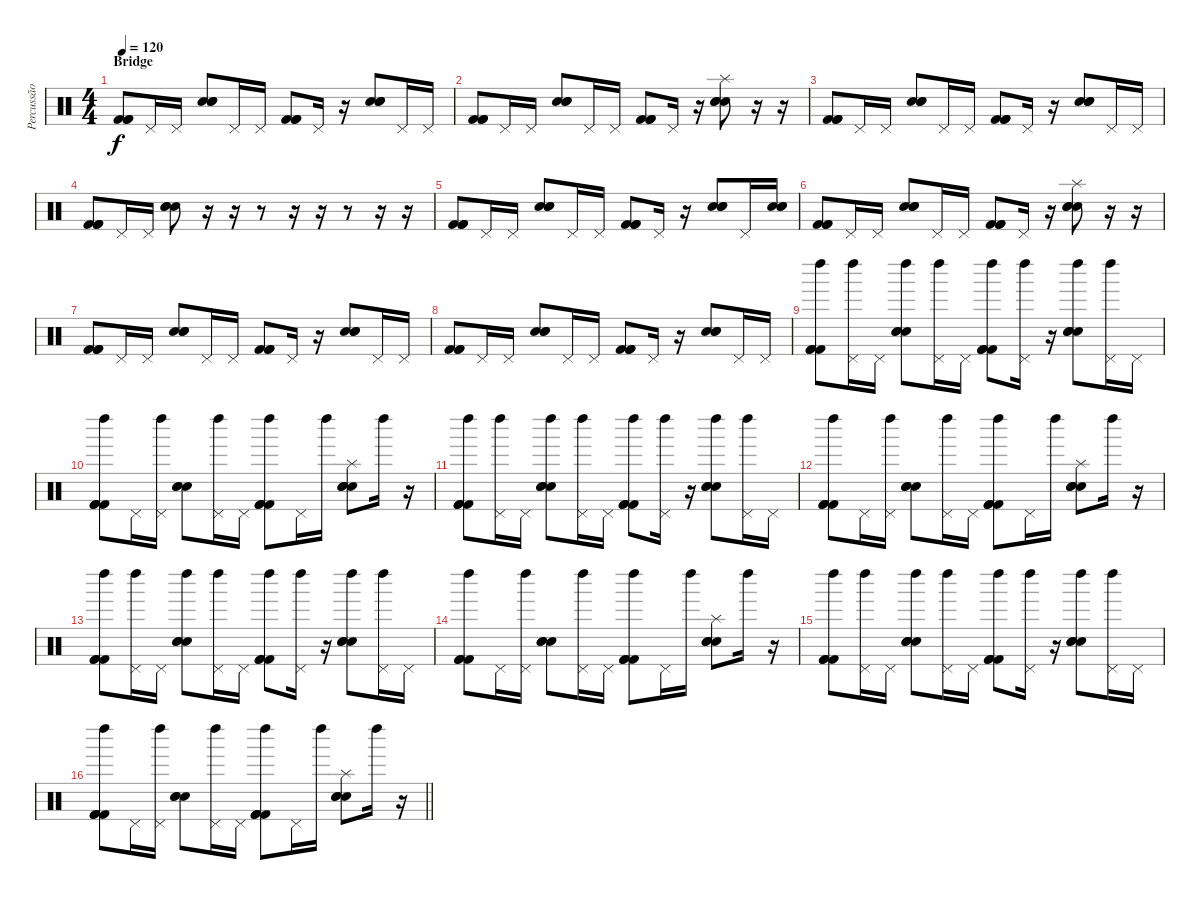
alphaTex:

\track ("Percussão" "Percussão") {instrument percussion}
\staff {score}
\articulation defaults
\ts (4 4)
\section ("" "Bridge")
\tempo 120
\clef neutral
\ks c
("Kick (hit) 2" "Kick (hit) 2" "Kick (hit) 2").8{dy f} "Pedal Hi-Hat (hit)".16 "Pedal Hi-Hat (hit)".16 ("Hand Clap (hit)" "Hand Clap (hit)" "Hand Clap (hit)").8 "Pedal Hi-Hat (hit)".16 "Pedal Hi-Hat (hit)".16 ("Kick (hit) 2" "Kick (hit) 2" "Kick (hit) 2").8 "Pedal Hi-Hat (hit)".16 r.16 ("Hand Clap (hit)" "Hand Clap (hit)" "Hand Clap (hit)").8 "Pedal Hi-Hat (hit)".16 "Pedal Hi-Hat (hit)".16 |
("Kick (hit) 2" "Kick (hit) 2" "Kick (hit) 2").8 "Pedal Hi-Hat (hit)".16 "Pedal Hi-Hat (hit)".16 ("Hand Clap (hit)" "Hand Clap (hit)" "Hand Clap (hit)").8 "Pedal Hi-Hat (hit)".16 "Pedal Hi-Hat (hit)".16 ("Kick (hit) 2" "Kick (hit) 2" "Kick (hit) 2").8 "Pedal Hi-Hat (hit)".16 r.16 ("Splash (hit)" "Hand Clap (hit)" "Hand Clap (hit)" "Hand Clap (hit)").8 r.16 r.16 |
("Kick (hit) 2" "Kick (hit) 2" "Kick (hit) 2").8 "Pedal Hi-Hat (hit)".16 "Pedal Hi-Hat (hit)".16 ("Hand Clap (hit)" "Hand Clap (hit)" "Hand Clap (hit)").8 "Pedal Hi-Hat (hit)".16 "Pedal Hi-Hat (hit)".16 ("Kick (hit) 2" "Kick (hit) 2" "Kick (hit) 2").8 "Pedal Hi-Hat (hit)".16 r.16 ("Hand Clap (hit)" "Hand Clap (hit)" "Hand Clap (hit)").8 "Pedal Hi-Hat (hit)".16 "Pedal Hi-Hat (hit)".16 |
("Kick (hit) 2" "Kick (hit) 2" "Kick (hit) 2").8 "Pedal Hi-Hat (hit)".16 "Pedal Hi-Hat (hit)".16 ("Hand Clap (hit)" "Hand Clap (hit)" "Hand Clap (hit)").8 r.16 r.16 r.8 r.16 r.16 r.8 r.16 r.16 |
("Kick (hit) 2" "Kick (hit) 2" "Kick (hit) 2").8 "Pedal Hi-Hat (hit)".16 "Pedal Hi-Hat (hit)".16 ("Hand Clap (hit)" "Hand Clap (hit)" "Hand Clap (hit)").8 "Pedal Hi-Hat (hit)".16 "Pedal Hi-Hat (hit)".16 ("Kick (hit) 2" "Kick (hit) 2" "Kick (hit) 2").8 "Pedal Hi-Hat (hit)".16 r.16 ("Hand Clap (hit)" "Hand Clap (hit)" "Hand Clap (hit)").8 "Pedal Hi-Hat (hit)".16 ("Hand Clap (hit)" "Hand Clap (hit)" "Hand Clap (hit)").16 |
("Kick (hit) 2" "Kick (hit) 2" "Kick (hit) 2").8 "Pedal Hi-Hat (hit)".16 "Pedal Hi-Hat (hit)".16 ("Hand Clap (hit)" "Hand Clap (hit)" "Hand Clap (hit)").8 "Pedal Hi-Hat (hit)".16 "Pedal Hi-Hat (hit)".16 ("Kick (hit) 2" "Kick (hit) 2" "Kick (hit) 2").8 "Pedal Hi-Hat (hit)".16 r.16 ("Splash (hit)" "Hand Clap (hit)" "Hand Clap (hit)" "Hand Clap (hit)").8 r.16 r.16 |
("Kick (hit) 2" "Kick (hit) 2" "Kick (hit) 2").8 "Pedal Hi-Hat (hit)".16 "Pedal Hi-Hat (hit)".16 ("Hand Clap (hit)" "Hand Clap (hit)" "Hand Clap (hit)").8 "Pedal Hi-Hat (hit)".16 "Pedal Hi-Hat (hit)".16 ("Kick (hit) 2" "Kick (hit) 2" "Kick (hit) 2").8 "Pedal Hi-Hat (hit)".16 r.16 ("Hand Clap (hit)" "Hand Clap (hit)" "Hand Clap (hit)").8 "Pedal Hi-Hat (hit)".16 "Pedal Hi-Hat (hit)".16 |
("Kick (hit) 2" "Kick (hit) 2" "Kick (hit) 2").8 "Pedal Hi-Hat (hit)".16 "Pedal Hi-Hat (hit)".16 ("Hand Clap (hit)" "Hand Clap (hit)" "Hand Clap (hit)").8 "Pedal Hi-Hat (hit)".16 "Pedal Hi-Hat (hit)".16 ("Kick (hit) 2" "Kick (hit) 2" "Kick (hit) 2").8 "Pedal Hi-Hat (hit)".16 r.16 ("Hand Clap (hit)" "Hand Clap (hit)" "Hand Clap (hit)").8 "Pedal Hi-Hat (hit)".16 "Pedal Hi-Hat (hit)".16 |
("Left Maraca (hit)" "Kick (hit) 2" "Kick (hit) 2" "Kick (hit) 2").8{volume 11} ("Left Maraca (hit)" "Pedal Hi-Hat (hit)").16 "Pedal Hi-Hat (hit)".16 ("Left Maraca (hit)" "Hand Clap (hit)" "Hand Clap (hit)" "Hand Clap (hit)").8 ("Left Maraca (hit)" "Pedal Hi-Hat (hit)").16 "Pedal Hi-Hat (hit)".16 ("Left Maraca (hit)" "Kick (hit) 2" "Kick (hit) 2" "Kick (hit) 2").8 ("Left Maraca (hit)" "Pedal Hi-Hat (hit)").16 r.16 ("Left Maraca (hit)" "Hand Clap (hit)" "Hand Clap (hit)" "Hand Clap (hit)").8 ("Left Maraca (hit)" "Pedal Hi-Hat (hit)").16 "Pedal Hi-Hat (hit)".16 |
("Left Maraca (hit)" "Kick (hit) 2" "Kick (hit) 2" "Kick (hit) 2").8 "Pedal Hi-Hat (hit)".16 ("Left Maraca (hit)" "Pedal Hi-Hat (hit)").16 ("Hand Clap (hit)" "Hand Clap (hit)" "Hand Clap (hit)").8 ("Left Maraca (hit)" "Pedal Hi-Hat (hit)").16 "Pedal Hi-Hat (hit)".16 ("Left Maraca (hit)" "Kick (hit) 2" "Kick (hit) 2" "Kick (hit) 2").8 "Pedal Hi-Hat (hit)".16 "Left Maraca (hit)".16 ("Splash (hit)" "Hand Clap (hit)" "Hand Clap (hit)" "Hand Clap (hit)").8 "Left Maraca (hit)".16 r.16 |
("Left Maraca (hit)" "Kick (hit) 2" "Kick (hit) 2" "Kick (hit) 2").8 ("Left Maraca (hit)" "Pedal Hi-Hat (hit)").16 "Pedal Hi-Hat (hit)".16 ("Left Maraca (hit)" "Hand Clap (hit)" "Hand Clap (hit)" "Hand Clap (hit)").8 ("Left Maraca (hit)" "Pedal Hi-Hat (hit)").16 "Pedal Hi-Hat (hit)".16 ("Left Maraca (hit)" "Kick (hit) 2" "Kick (hit) 2" "Kick (hit) 2").8 ("Left Maraca (hit)" "Pedal Hi-Hat (hit)").16 r.16 ("Left Maraca (hit)" "Hand Clap (hit)" "Hand Clap (hit)" "Hand Clap (hit)").8 ("Left Maraca (hit)" "Pedal Hi-Hat (hit)").16 "Pedal Hi-Hat (hit)".16 |
("Left Maraca (hit)" "Kick (hit) 2" "Kick (hit) 2" "Kick (hit) 2").8 "Pedal Hi-Hat (hit)".16 ("Left Maraca (hit)" "Pedal Hi-Hat (hit)").16 ("Hand Clap (hit)" "Hand Clap (hit)" "Hand Clap (hit)").8 ("Left Maraca (hit)" "Pedal Hi-Hat (hit)").16 "Pedal Hi-Hat (hit)".16 ("Left Maraca (hit)" "Kick (hit) 2" "Kick (hit) 2" "Kick (hit) 2").8 "Pedal Hi-Hat (hit)".16 "Left Maraca (hit)".16 ("Splash (hit)" "Hand Clap (hit)" "Hand Clap (hit)" "Hand Clap (hit)").8 "Left Maraca (hit)".16 r.16 |
("Left Maraca (hit)" "Kick (hit) 2" "Kick (hit) 2" "Kick (hit) 2").8 ("Left Maraca (hit)" "Pedal Hi-Hat (hit)").16 "Pedal Hi-Hat (hit)".16 ("Left Maraca (hit)" "Hand Clap (hit)" "Hand Clap (hit)" "Hand Clap (hit)").8 ("Left Maraca (hit)" "Pedal Hi-Hat (hit)").16 "Pedal Hi-Hat (hit)".16 ("Left Maraca (hit)" "Kick (hit) 2" "Kick (hit) 2" "Kick (hit) 2").8 ("Left Maraca (hit)" "Pedal Hi-Hat (hit)").16 r.16 ("Left Maraca (hit)" "Hand Clap (hit)" "Hand Clap (hit)" "Hand Clap (hit)").8 ("Left Maraca (hit)" "Pedal Hi-Hat (hit)").16 "Pedal Hi-Hat (hit)".16 |
("Left Maraca (hit)" "Kick (hit) 2" "Kick (hit) 2" "Kick (hit) 2").8 "Pedal Hi-Hat (hit)".16 ("Left Maraca (hit)" "Pedal Hi-Hat (hit)").16 ("Hand Clap (hit)" "Hand Clap (hit)" "Hand Clap (hit)").8 ("Left Maraca (hit)" "Pedal Hi-Hat (hit)").16 "Pedal Hi-Hat (hit)".16 ("Left Maraca (hit)" "Kick (hit) 2" "Kick (hit) 2" "Kick (hit) 2").8 "Pedal Hi-Hat (hit)".16 "Left Maraca (hit)".16 ("Splash (hit)" "Hand Clap (hit)" "Hand Clap (hit)" "Hand Clap (hit)").8 "Left Maraca (hit)".16 r.16 |
("Left Maraca (hit)" "Kick (hit) 2" "Kick (hit) 2" "Kick (hit) 2").8 ("Left Maraca (hit)" "Pedal Hi-Hat (hit)").16 "Pedal Hi-Hat (hit)".16 ("Left Maraca (hit)" "Hand Clap (hit)" "Hand Clap (hit)" "Hand Clap (hit)").8 ("Left Maraca (hit)" "Pedal Hi-Hat (hit)").16 "Pedal Hi-Hat (hit)".16 ("Left Maraca (hit)" "Kick (hit) 2" "Kick (hit) 2" "Kick (hit) 2").8 ("Left Maraca (hit)" "Pedal Hi-Hat (hit)").16 r.16 ("Left Maraca (hit)" "Hand Clap (hit)" "Hand Clap (hit)" "Hand Clap (hit)").8 ("Left Maraca (hit)" "Pedal Hi-Hat (hit)").16 "Pedal Hi-Hat (hit)".16 |
\barLineRight lightlight
("Left Maraca (hit)" "Kick (hit) 2" "Kick (hit) 2" "Kick (hit) 2").8 "Pedal Hi-Hat (hit)".16 ("Left Maraca (hit)" "Pedal Hi-Hat (hit)").16 ("Hand Clap (hit)" "Hand Clap (hit)" "Hand Clap (hit)").8 ("Left Maraca (hit)" "Pedal Hi-Hat (hit)").16 "Pedal Hi-Hat (hit)".16 ("Left Maraca (hit)" "Kick (hit) 2" "Kick (hit) 2" "Kick (hit) 2").8 "Pedal Hi-Hat (hit)".16 "Left Maraca (hit)".16 ("Splash (hit)" "Hand Clap (hit)" "Hand Clap (hit)" "Hand Clap (hit)").8 "Left Maraca (hit)".16 r.16
